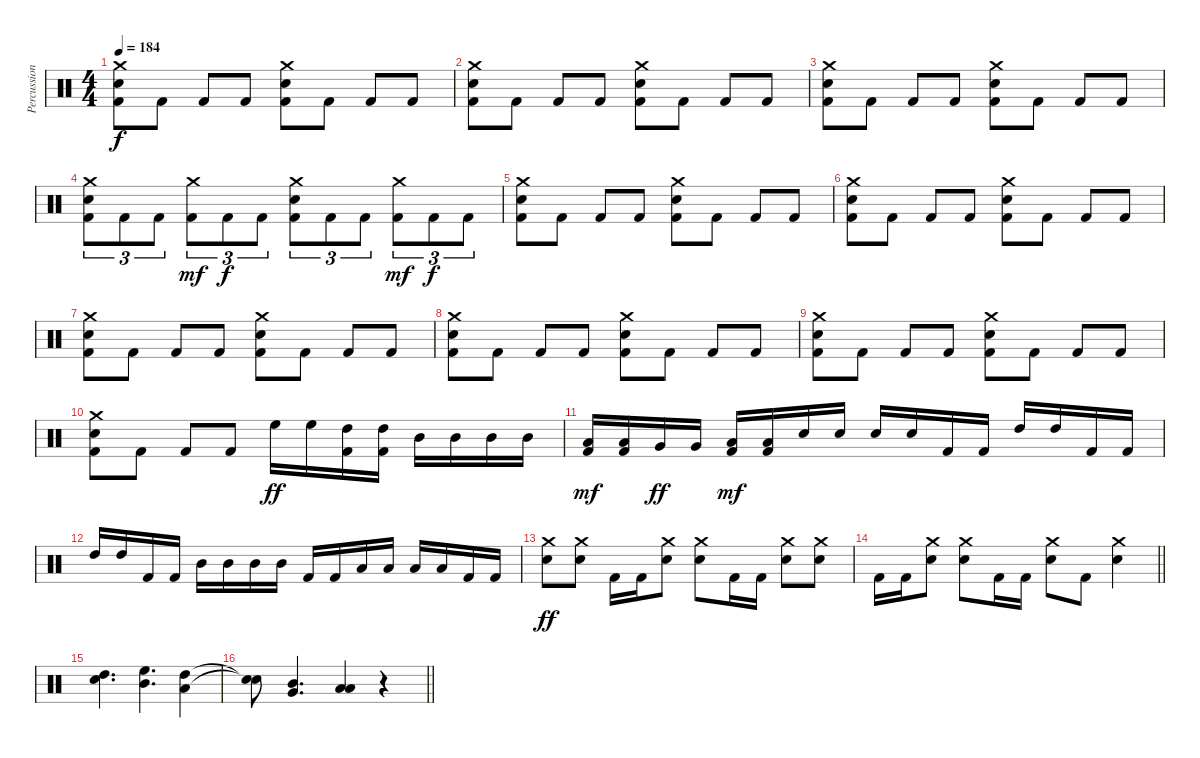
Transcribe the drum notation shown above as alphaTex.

\track ("Percussion" "Percussion") {instrument percussion}
\staff {score}
\articulation defaults
\ts (4 4)
\tempo 184
\clef neutral
\ks c
("Crash medium (hit)" "Electric Snare (hit)" "Kick (hit) 2").8{dy f} "Kick (hit) 2".8 "Kick (hit) 2".8 "Kick (hit) 2".8 ("Crash medium (hit)" "Electric Snare (hit)" "Kick (hit) 2").8 "Kick (hit) 2".8 "Kick (hit) 2".8 "Kick (hit) 2".8 |
("Crash medium (hit)" "Electric Snare (hit)" "Kick (hit) 2").8 "Kick (hit) 2".8 "Kick (hit) 2".8 "Kick (hit) 2".8 ("Crash medium (hit)" "Electric Snare (hit)" "Kick (hit) 2").8 "Kick (hit) 2".8 "Kick (hit) 2".8 "Kick (hit) 2".8 |
("Crash medium (hit)" "Electric Snare (hit)" "Kick (hit) 2").8 "Kick (hit) 2".8 "Kick (hit) 2".8 "Kick (hit) 2".8 ("Crash medium (hit)" "Electric Snare (hit)" "Kick (hit) 2").8 "Kick (hit) 2".8 "Kick (hit) 2".8 "Kick (hit) 2".8 |
("Crash medium (hit)" "Electric Snare (hit)" "Kick (hit) 2").8{tu (3 2)} "Kick (hit) 2".8{tu (3 2)} "Kick (hit) 2".8{tu (3 2)} ("Crash medium (hit)" "Kick (hit) 2").8{tu (3 2) dy mf} "Kick (hit) 2".8{tu (3 2) dy f} "Kick (hit) 2".8{tu (3 2)} ("Crash medium (hit)" "Electric Snare (hit)" "Kick (hit) 2").8{tu (3 2)} "Kick (hit) 2".8{tu (3 2)} "Kick (hit) 2".8{tu (3 2)} ("Crash medium (hit)" "Kick (hit) 2").8{tu (3 2) dy mf} "Kick (hit) 2".8{tu (3 2) dy f} "Kick (hit) 2".8{tu (3 2)} |
("Crash medium (hit)" "Electric Snare (hit)" "Kick (hit) 2").8 "Kick (hit) 2".8 "Kick (hit) 2".8 "Kick (hit) 2".8 ("Crash medium (hit)" "Electric Snare (hit)" "Kick (hit) 2").8 "Kick (hit) 2".8 "Kick (hit) 2".8 "Kick (hit) 2".8 |
("Crash medium (hit)" "Electric Snare (hit)" "Kick (hit) 2").8 "Kick (hit) 2".8 "Kick (hit) 2".8 "Kick (hit) 2".8 ("Crash medium (hit)" "Electric Snare (hit)" "Kick (hit) 2").8 "Kick (hit) 2".8 "Kick (hit) 2".8 "Kick (hit) 2".8 |
("Crash medium (hit)" "Electric Snare (hit)" "Kick (hit) 2").8 "Kick (hit) 2".8 "Kick (hit) 2".8 "Kick (hit) 2".8 ("Crash medium (hit)" "Electric Snare (hit)" "Kick (hit) 2").8 "Kick (hit) 2".8 "Kick (hit) 2".8 "Kick (hit) 2".8 |
("Crash medium (hit)" "Electric Snare (hit)" "Kick (hit) 2").8 "Kick (hit) 2".8 "Kick (hit) 2".8 "Kick (hit) 2".8 ("Crash medium (hit)" "Electric Snare (hit)" "Kick (hit) 2").8 "Kick (hit) 2".8 "Kick (hit) 2".8 "Kick (hit) 2".8 |
("Crash medium (hit)" "Electric Snare (hit)" "Kick (hit) 2").8 "Kick (hit) 2".8 "Kick (hit) 2".8 "Kick (hit) 2".8 ("Crash medium (hit)" "Electric Snare (hit)" "Kick (hit) 2").8 "Kick (hit) 2".8 "Kick (hit) 2".8 "Kick (hit) 2".8 |
("Crash medium (hit)" "Electric Snare (hit)" "Kick (hit) 2").8 "Kick (hit) 2".8 "Kick (hit) 2".8 "Kick (hit) 2".8 "High Floor Tom (hit)".16{dy ff} "High Floor Tom (hit)".16 ("High Tom (hit)" "Kick (hit) 2").16 ("High Tom (hit)" "Kick (hit) 2").16 "Mid Tom (hit)".16 "Mid Tom (hit)".16 "Mid Tom (hit)".16 "Mid Tom (hit)".16 |
("Low Tom (hit)" "Kick (hit) 2").16{dy mf} ("Low Tom (hit)" "Kick (hit) 2").16 "Very Low Tom (hit)".16{dy ff} "Very Low Tom (hit)".16 ("Low Floor Tom (hit)" "Kick (hit) 2").16{dy mf} ("Low Floor Tom (hit)" "Kick (hit) 2").16 "Electric Snare (hit)".16 "Electric Snare (hit)".16 "Electric Snare (hit)".16 "Electric Snare (hit)".16 "Kick (hit) 2".16 "Kick (hit) 2".16 "High Tom (hit)".16 "High Tom (hit)".16 "Kick (hit) 2".16 "Kick (hit) 2".16 |
"High Tom (hit)".16 "High Tom (hit)".16 "Kick (hit) 2".16 "Kick (hit) 2".16 "Mid Tom (hit)".16 "Mid Tom (hit)".16 "Mid Tom (hit)".16 "Mid Tom (hit)".16 "Kick (hit) 2".16 "Kick (hit) 2".16 "Low Tom (hit)".16 "Low Tom (hit)".16 "Low Tom (hit)".16 "Low Tom (hit)".16 "Kick (hit) 2".16 "Kick (hit) 2".16 |
("Crash medium (hit)" "Electric Snare (hit)").8{dy ff} ("Crash medium (hit)" "Electric Snare (hit)").8 "Kick (hit) 2".16 "Kick (hit) 2".16 ("Crash medium (hit)" "Electric Snare (hit)").8 ("Crash medium (hit)" "Electric Snare (hit)").8 "Kick (hit) 2".16 "Kick (hit) 2".16 ("Crash medium (hit)" "Electric Snare (hit)").8 ("Crash medium (hit)" "Electric Snare (hit)").8 |
\barLineRight lightlight "Kick (hit) 2".16 "Kick (hit) 2".16
("Crash medium (hit)" "Electric Snare (hit)").8 ("Crash medium (hit)" "Electric Snare (hit)").8 "Kick (hit) 2".16 "Kick (hit) 2".16 ("Crash medium (hit)" "Electric Snare (hit)").8 "Kick (hit) 2".8 ("Crash medium (hit)" "Electric Snare (hit)").4 |
("Electric Snare (hit)" "High Tom (hit)").4{d} ("High Floor Tom (hit)" "Mid Tom (hit)").4{d} ("High Tom (hit)" "Low Tom (hit)").4 |
\barLineRight lightlight
("Snare (hit)"{t} "Snare (hit)"{t}).8 ("Mid Tom (hit)" "Very Low Tom (hit)").4{d} ("Low Tom (hit)" "Low Floor Tom (hit)").4 r.4
